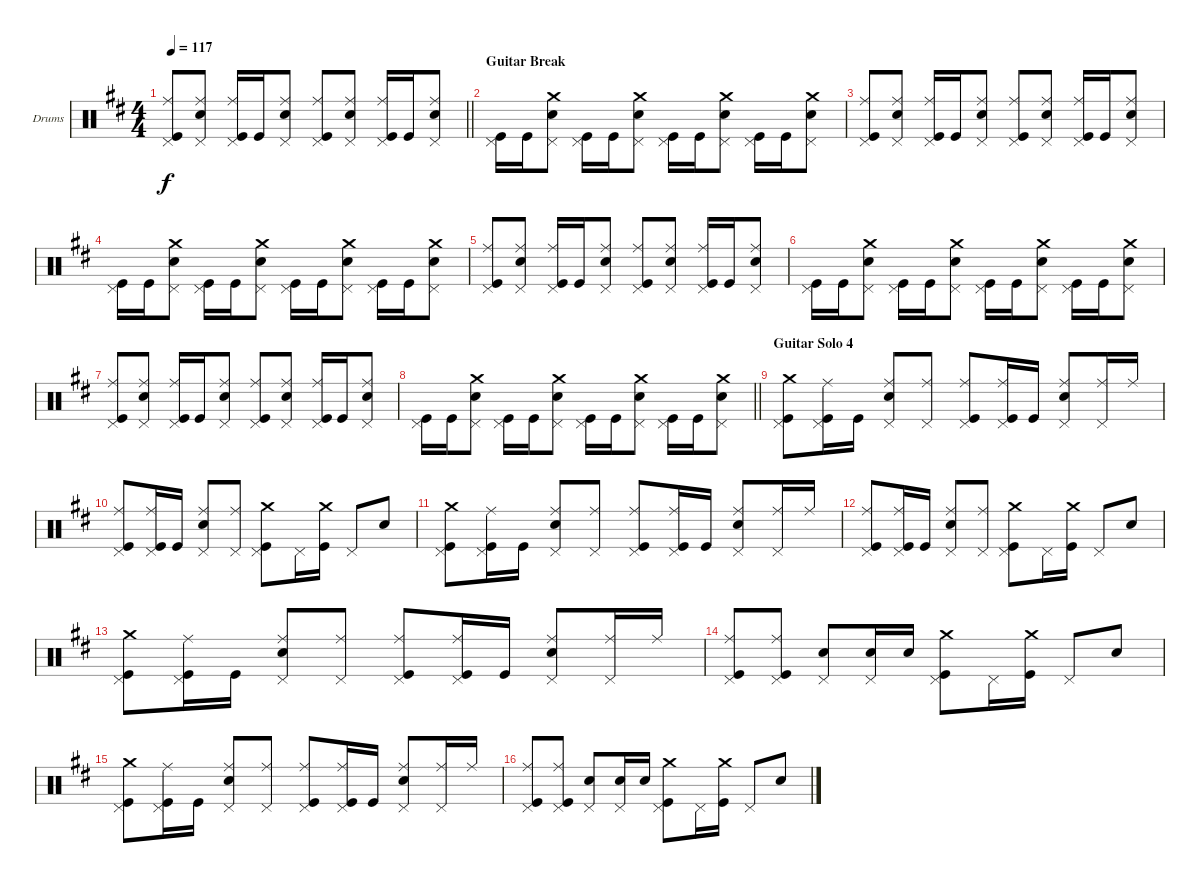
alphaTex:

\bracketExtendMode groupsimilarinstruments
\firstSystemTrackNameOrientation horizontal
\otherSystemsTrackNameOrientation horizontal
\track ("Барабаны" "Drums") {instrument percussion}
\staff {score}
\articulation defaults
\ts (4 4)
\tempo 117
\clef neutral
\barLineRight lightlight
\ks bminor
("Kick (hit)" "Ride (middle)" "Pedal Hi-Hat (hit)").8{dy f} ("Snare (hit) 2" "Ride (middle)" "Pedal Hi-Hat (hit)").8 ("Kick (hit)" "Ride (middle)" "Pedal Hi-Hat (hit)").16 "Kick (hit)".16 ("Snare (hit) 2" "Ride (middle)" "Pedal Hi-Hat (hit)").8 ("Kick (hit)" "Ride (middle)" "Pedal Hi-Hat (hit)").8 ("Snare (hit) 2" "Ride (middle)" "Pedal Hi-Hat (hit)").8 ("Kick (hit)" "Ride (middle)" "Pedal Hi-Hat (hit)").16 "Kick (hit)".16 ("Snare (hit) 2" "Ride (middle)" "Pedal Hi-Hat (hit)").8 |
\section ("" "Guitar Break")
("Kick (hit)" "Pedal Hi-Hat (hit)").16 "Kick (hit)".16 ("Snare (hit) 2" "Crash medium (hit)" "Pedal Hi-Hat (hit)").8 ("Kick (hit)" "Pedal Hi-Hat (hit)").16 "Kick (hit)".16 ("Snare (hit) 2" "Crash medium (hit)" "Pedal Hi-Hat (hit)").8 ("Kick (hit)" "Pedal Hi-Hat (hit)").16 "Kick (hit)".16 ("Snare (hit) 2" "Crash medium (hit)" "Pedal Hi-Hat (hit)").8 ("Kick (hit)" "Pedal Hi-Hat (hit)").16 "Kick (hit)".16 ("Snare (hit) 2" "Crash medium (hit)" "Pedal Hi-Hat (hit)").8 |
("Kick (hit)" "Ride (middle)" "Pedal Hi-Hat (hit)").8 ("Snare (hit) 2" "Ride (middle)" "Pedal Hi-Hat (hit)").8 ("Kick (hit)" "Ride (middle)" "Pedal Hi-Hat (hit)").16 "Kick (hit)".16 ("Snare (hit) 2" "Ride (middle)" "Pedal Hi-Hat (hit)").8 ("Kick (hit)" "Ride (middle)" "Pedal Hi-Hat (hit)").8 ("Snare (hit) 2" "Ride (middle)" "Pedal Hi-Hat (hit)").8 ("Kick (hit)" "Ride (middle)" "Pedal Hi-Hat (hit)").16 "Kick (hit)".16 ("Snare (hit) 2" "Ride (middle)" "Pedal Hi-Hat (hit)").8 |
("Kick (hit)" "Pedal Hi-Hat (hit)").16 "Kick (hit)".16 ("Snare (hit) 2" "Crash medium (hit)" "Pedal Hi-Hat (hit)").8 ("Kick (hit)" "Pedal Hi-Hat (hit)").16 "Kick (hit)".16 ("Snare (hit) 2" "Crash medium (hit)" "Pedal Hi-Hat (hit)").8 ("Kick (hit)" "Pedal Hi-Hat (hit)").16 "Kick (hit)".16 ("Snare (hit) 2" "Crash medium (hit)" "Pedal Hi-Hat (hit)").8 ("Kick (hit)" "Pedal Hi-Hat (hit)").16 "Kick (hit)".16 ("Snare (hit) 2" "Crash medium (hit)" "Pedal Hi-Hat (hit)").8 |
("Kick (hit)" "Ride (middle)" "Pedal Hi-Hat (hit)").8 ("Snare (hit) 2" "Ride (middle)" "Pedal Hi-Hat (hit)").8 ("Kick (hit)" "Ride (middle)" "Pedal Hi-Hat (hit)").16 "Kick (hit)".16 ("Snare (hit) 2" "Ride (middle)" "Pedal Hi-Hat (hit)").8 ("Kick (hit)" "Ride (middle)" "Pedal Hi-Hat (hit)").8 ("Snare (hit) 2" "Ride (middle)" "Pedal Hi-Hat (hit)").8 ("Kick (hit)" "Ride (middle)" "Pedal Hi-Hat (hit)").16 "Kick (hit)".16 ("Snare (hit) 2" "Ride (middle)" "Pedal Hi-Hat (hit)").8 |
("Kick (hit)" "Pedal Hi-Hat (hit)").16 "Kick (hit)".16 ("Snare (hit) 2" "Crash medium (hit)" "Pedal Hi-Hat (hit)").8 ("Kick (hit)" "Pedal Hi-Hat (hit)").16 "Kick (hit)".16 ("Snare (hit) 2" "Crash medium (hit)" "Pedal Hi-Hat (hit)").8 ("Kick (hit)" "Pedal Hi-Hat (hit)").16 "Kick (hit)".16 ("Snare (hit) 2" "Crash medium (hit)" "Pedal Hi-Hat (hit)").8 ("Kick (hit)" "Pedal Hi-Hat (hit)").16 "Kick (hit)".16 ("Snare (hit) 2" "Crash medium (hit)" "Pedal Hi-Hat (hit)").8 |
("Kick (hit)" "Ride (middle)" "Pedal Hi-Hat (hit)").8 ("Snare (hit) 2" "Ride (middle)" "Pedal Hi-Hat (hit)").8 ("Kick (hit)" "Ride (middle)" "Pedal Hi-Hat (hit)").16 "Kick (hit)".16 ("Snare (hit) 2" "Ride (middle)" "Pedal Hi-Hat (hit)").8 ("Kick (hit)" "Ride (middle)" "Pedal Hi-Hat (hit)").8 ("Snare (hit) 2" "Ride (middle)" "Pedal Hi-Hat (hit)").8 ("Kick (hit)" "Ride (middle)" "Pedal Hi-Hat (hit)").16 "Kick (hit)".16 ("Snare (hit) 2" "Ride (middle)" "Pedal Hi-Hat (hit)").8 |
\barLineRight lightlight
("Kick (hit)" "Pedal Hi-Hat (hit)").16 "Kick (hit)".16 ("Snare (hit) 2" "Crash medium (hit)" "Pedal Hi-Hat (hit)").8 ("Kick (hit)" "Pedal Hi-Hat (hit)").16 "Kick (hit)".16 ("Snare (hit) 2" "Crash medium (hit)" "Pedal Hi-Hat (hit)").8 ("Kick (hit)" "Pedal Hi-Hat (hit)").16 "Kick (hit)".16 ("Snare (hit) 2" "Crash medium (hit)" "Pedal Hi-Hat (hit)").8 ("Kick (hit)" "Pedal Hi-Hat (hit)").16 "Kick (hit)".16 ("Snare (hit) 2" "Crash medium (hit)" "Pedal Hi-Hat (hit)").8 |
\section ("" "Guitar Solo 4")
("Kick (hit)" "Crash medium (hit)" "Pedal Hi-Hat (hit)").8 ("Kick (hit)" "Ride (middle)" "Pedal Hi-Hat (hit)").16 "Kick (hit)".16 ("Snare (hit) 2" "Ride (middle)" "Pedal Hi-Hat (hit)").8 ("Ride (middle)" "Pedal Hi-Hat (hit)").8 ("Kick (hit)" "Ride (middle)" "Pedal Hi-Hat (hit)").8 ("Kick (hit)" "Ride (middle)" "Pedal Hi-Hat (hit)").16 "Kick (hit)".16 ("Snare (hit) 2" "Ride (middle)" "Pedal Hi-Hat (hit)").8 ("Ride (middle)" "Pedal Hi-Hat (hit)").16 "Ride (middle)".16 |
("Kick (hit)" "Ride (middle)" "Pedal Hi-Hat (hit)").8 ("Kick (hit)" "Ride (middle)" "Pedal Hi-Hat (hit)").16 "Kick (hit)".16 ("Snare (hit) 2" "Ride (middle)" "Pedal Hi-Hat (hit)").8 ("Ride (middle)" "Pedal Hi-Hat (hit)").8 ("Kick (hit)" "Crash medium (hit)" "Pedal Hi-Hat (hit)").8 "Pedal Hi-Hat (hit)".16 ("Kick (hit)" "Crash medium (hit)").16 "Pedal Hi-Hat (hit)".8 "Snare (hit) 2".8 |
("Kick (hit)" "Crash medium (hit)" "Pedal Hi-Hat (hit)").8 ("Kick (hit)" "Ride (middle)" "Pedal Hi-Hat (hit)").16 "Kick (hit)".16 ("Snare (hit) 2" "Ride (middle)" "Pedal Hi-Hat (hit)").8 ("Ride (middle)" "Pedal Hi-Hat (hit)").8 ("Kick (hit)" "Ride (middle)" "Pedal Hi-Hat (hit)").8 ("Kick (hit)" "Ride (middle)" "Pedal Hi-Hat (hit)").16 "Kick (hit)".16 ("Snare (hit) 2" "Ride (middle)" "Pedal Hi-Hat (hit)").8 ("Ride (middle)" "Pedal Hi-Hat (hit)").16 "Ride (middle)".16 |
("Kick (hit)" "Ride (middle)" "Pedal Hi-Hat (hit)").8 ("Kick (hit)" "Ride (middle)" "Pedal Hi-Hat (hit)").16 "Kick (hit)".16 ("Snare (hit) 2" "Ride (middle)" "Pedal Hi-Hat (hit)").8 ("Ride (middle)" "Pedal Hi-Hat (hit)").8 ("Kick (hit)" "Crash medium (hit)" "Pedal Hi-Hat (hit)").8 "Pedal Hi-Hat (hit)".16 ("Kick (hit)" "Crash medium (hit)").16 "Pedal Hi-Hat (hit)".8 "Snare (hit) 2".8 |
("Kick (hit)" "Crash medium (hit)" "Pedal Hi-Hat (hit)").8 ("Kick (hit)" "Ride (middle)" "Pedal Hi-Hat (hit)").16 "Kick (hit)".16 ("Snare (hit) 2" "Ride (middle)" "Pedal Hi-Hat (hit)").8 ("Ride (middle)" "Pedal Hi-Hat (hit)").8 ("Kick (hit)" "Ride (middle)" "Pedal Hi-Hat (hit)").8 ("Kick (hit)" "Ride (middle)" "Pedal Hi-Hat (hit)").16 "Kick (hit)".16 ("Snare (hit) 2" "Ride (middle)" "Pedal Hi-Hat (hit)").8 ("Ride (middle)" "Pedal Hi-Hat (hit)").16 "Ride (middle)".16 |
("Kick (hit)" "Ride (middle)" "Pedal Hi-Hat (hit)").8 ("Kick (hit)" "Ride (middle)" "Pedal Hi-Hat (hit)").8 ("Snare (hit) 2" "Pedal Hi-Hat (hit)").8 ("Snare (hit) 2" "Pedal Hi-Hat (hit)").16 "Snare (hit) 2".16 ("Kick (hit)" "Crash medium (hit)" "Pedal Hi-Hat (hit)").8 "Pedal Hi-Hat (hit)".16 ("Kick (hit)" "Crash medium (hit)").16 "Pedal Hi-Hat (hit)".8 "Snare (hit) 2".8 |
("Kick (hit)" "Crash medium (hit)" "Pedal Hi-Hat (hit)").8 ("Kick (hit)" "Ride (middle)" "Pedal Hi-Hat (hit)").16 "Kick (hit)".16 ("Snare (hit) 2" "Ride (middle)" "Pedal Hi-Hat (hit)").8 ("Ride (middle)" "Pedal Hi-Hat (hit)").8 ("Kick (hit)" "Ride (middle)" "Pedal Hi-Hat (hit)").8 ("Kick (hit)" "Ride (middle)" "Pedal Hi-Hat (hit)").16 "Kick (hit)".16 ("Snare (hit) 2" "Ride (middle)" "Pedal Hi-Hat (hit)").8 ("Ride (middle)" "Pedal Hi-Hat (hit)").16 "Ride (middle)".16 |
("Kick (hit)" "Ride (middle)" "Pedal Hi-Hat (hit)").8 ("Kick (hit)" "Ride (middle)" "Pedal Hi-Hat (hit)").8 ("Snare (hit) 2" "Pedal Hi-Hat (hit)").8 ("Snare (hit) 2" "Pedal Hi-Hat (hit)").16 "Snare (hit) 2".16 ("Kick (hit)" "Crash medium (hit)" "Pedal Hi-Hat (hit)").8 "Pedal Hi-Hat (hit)".16 ("Kick (hit)" "Crash medium (hit)").16 "Pedal Hi-Hat (hit)".8 "Snare (hit) 2".8
